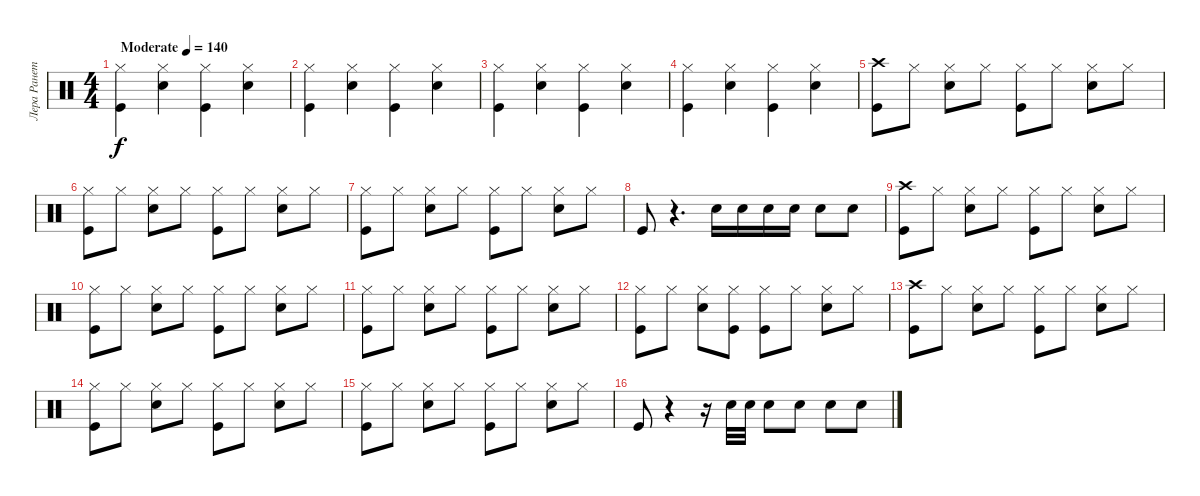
\track ("Лера Ранетка" "Лера Ранет") {instrument percussion}
\staff {score}
\articulation defaults
\ts (4 4)
\tempo (140 "Moderate")
\clef neutral
\ks c
("Hi-Hat (closed)" "Kick (hit)").4{dy f} ("Hi-Hat (closed)" "Electric Snare (hit)").4 ("Hi-Hat (closed)" "Kick (hit)").4 ("Hi-Hat (closed)" "Electric Snare (hit)").4 |
("Hi-Hat (closed)" "Kick (hit)").4 ("Hi-Hat (closed)" "Electric Snare (hit)").4 ("Hi-Hat (closed)" "Kick (hit)").4 ("Hi-Hat (closed)" "Electric Snare (hit)").4 |
("Hi-Hat (closed)" "Kick (hit)").4 ("Hi-Hat (closed)" "Electric Snare (hit)").4 ("Hi-Hat (closed)" "Kick (hit)").4 ("Hi-Hat (closed)" "Electric Snare (hit)").4 |
("Hi-Hat (closed)" "Kick (hit)").4 ("Hi-Hat (closed)" "Electric Snare (hit)").4 ("Hi-Hat (closed)" "Kick (hit)").4 ("Hi-Hat (closed)" "Electric Snare (hit)").4 |
("Crash high (hit)" "Kick (hit)").8 "Hi-Hat (closed)".8 ("Hi-Hat (closed)" "Electric Snare (hit)").8 "Hi-Hat (closed)".8 ("Hi-Hat (closed)" "Kick (hit)").8 "Hi-Hat (closed)".8 ("Hi-Hat (closed)" "Electric Snare (hit)").8 "Hi-Hat (closed)".8 |
("Hi-Hat (closed)" "Kick (hit)").8 "Hi-Hat (closed)".8 ("Hi-Hat (closed)" "Electric Snare (hit)").8 "Hi-Hat (closed)".8 ("Hi-Hat (closed)" "Kick (hit)").8 "Hi-Hat (closed)".8 ("Hi-Hat (closed)" "Electric Snare (hit)").8 "Hi-Hat (closed)".8 |
("Hi-Hat (closed)" "Kick (hit)").8 "Hi-Hat (closed)".8 ("Hi-Hat (closed)" "Electric Snare (hit)").8 "Hi-Hat (closed)".8 ("Hi-Hat (closed)" "Kick (hit)").8 "Hi-Hat (closed)".8 ("Hi-Hat (closed)" "Electric Snare (hit)").8 "Hi-Hat (closed)".8 |
"Kick (hit)".8 r.4{d} "Electric Snare (hit)".16 "Electric Snare (hit)".16 "Electric Snare (hit)".16 "Electric Snare (hit)".16 "Electric Snare (hit)".8 "Electric Snare (hit)".8 |
("Crash high (hit)" "Kick (hit)").8 "Hi-Hat (closed)".8 ("Hi-Hat (closed)" "Electric Snare (hit)").8 "Hi-Hat (closed)".8 ("Hi-Hat (closed)" "Kick (hit)").8 "Hi-Hat (closed)".8 ("Hi-Hat (closed)" "Electric Snare (hit)").8 "Hi-Hat (closed)".8 |
("Hi-Hat (closed)" "Kick (hit)").8 "Hi-Hat (closed)".8 ("Hi-Hat (closed)" "Electric Snare (hit)").8 "Hi-Hat (closed)".8 ("Hi-Hat (closed)" "Kick (hit)").8 "Hi-Hat (closed)".8 ("Hi-Hat (closed)" "Electric Snare (hit)").8 "Hi-Hat (closed)".8 |
("Hi-Hat (closed)" "Kick (hit)").8 "Hi-Hat (closed)".8 ("Hi-Hat (closed)" "Electric Snare (hit)").8 "Hi-Hat (closed)".8 ("Hi-Hat (closed)" "Kick (hit)").8 "Hi-Hat (closed)".8 ("Hi-Hat (closed)" "Electric Snare (hit)").8 "Hi-Hat (closed)".8 |
("Hi-Hat (closed)" "Kick (hit)").8 "Hi-Hat (closed)".8 ("Hi-Hat (closed)" "Electric Snare (hit)").8 ("Hi-Hat (closed)" "Kick (hit)").8 ("Hi-Hat (closed)" "Kick (hit)").8 "Hi-Hat (closed)".8 ("Hi-Hat (closed)" "Electric Snare (hit)").8 "Hi-Hat (closed)".8 |
("Crash high (hit)" "Kick (hit)").8 "Hi-Hat (closed)".8 ("Hi-Hat (closed)" "Electric Snare (hit)").8 "Hi-Hat (closed)".8 ("Hi-Hat (closed)" "Kick (hit)").8 "Hi-Hat (closed)".8 ("Hi-Hat (closed)" "Electric Snare (hit)").8 "Hi-Hat (closed)".8 |
("Hi-Hat (closed)" "Kick (hit)").8 "Hi-Hat (closed)".8 ("Hi-Hat (closed)" "Electric Snare (hit)").8 "Hi-Hat (closed)".8 ("Hi-Hat (closed)" "Kick (hit)").8 "Hi-Hat (closed)".8 ("Hi-Hat (closed)" "Electric Snare (hit)").8 "Hi-Hat (closed)".8 |
("Hi-Hat (closed)" "Kick (hit)").8 "Hi-Hat (closed)".8 ("Hi-Hat (closed)" "Electric Snare (hit)").8 "Hi-Hat (closed)".8 ("Hi-Hat (closed)" "Kick (hit)").8 "Hi-Hat (closed)".8 ("Hi-Hat (closed)" "Electric Snare (hit)").8 "Hi-Hat (closed)".8 |
"Kick (hit)".8 r.4 r.16 "Electric Snare (hit)".32 "Electric Snare (hit)".32 "Electric Snare (hit)".8 "Electric Snare (hit)".8 "Electric Snare (hit)".8 "Electric Snare (hit)".8
